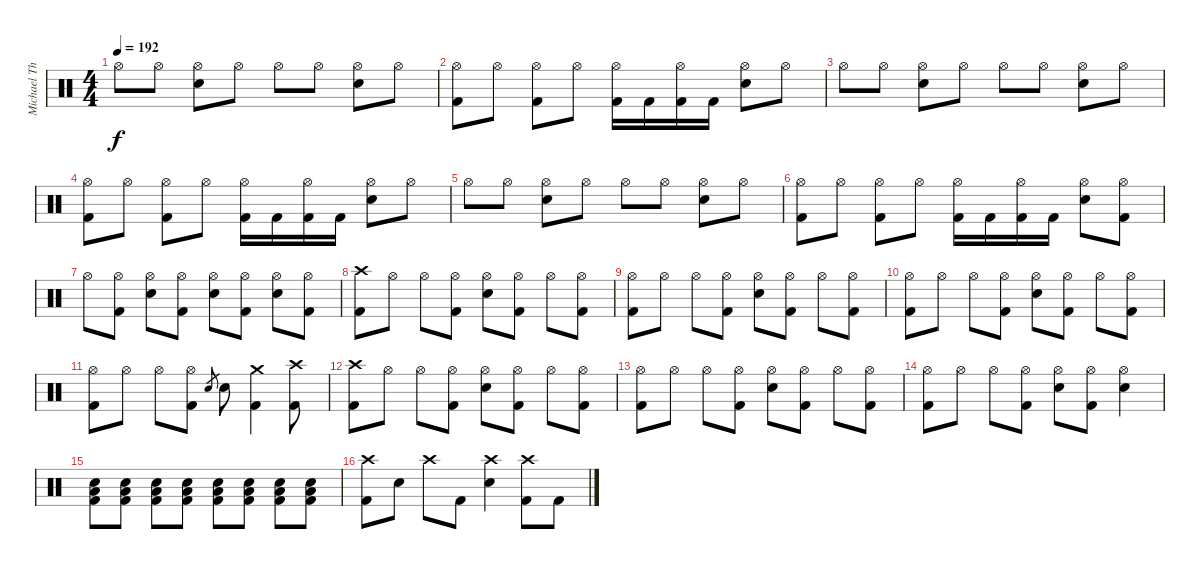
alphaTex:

\track ("Michael Thomas (Drums)" "Michael Th") {instrument percussion}
\staff {score}
\articulation defaults
\ts (4 4)
\tempo 192
\clef neutral
\ks c "Hi-Hat (open)".8{dy f} "Hi-Hat (open)".8
("Hi-Hat (open)" "Snare (hit) 2").8 "Hi-Hat (open)".8 "Hi-Hat (open)".8 "Hi-Hat (open)".8 ("Hi-Hat (open)" "Snare (hit) 2").8 "Hi-Hat (open)".8 |
("Hi-Hat (open)" "Kick (hit) 2").8 "Hi-Hat (open)".8 ("Hi-Hat (open)" "Kick (hit) 2").8 "Hi-Hat (open)".8 ("Hi-Hat (open)" "Kick (hit) 2").16 "Kick (hit) 2".16 ("Hi-Hat (open)" "Kick (hit) 2").16 "Kick (hit) 2".16 ("Hi-Hat (open)" "Snare (hit) 2").8 "Hi-Hat (open)".8 |
"Hi-Hat (open)".8 "Hi-Hat (open)".8 ("Hi-Hat (open)" "Snare (hit) 2").8 "Hi-Hat (open)".8 "Hi-Hat (open)".8 "Hi-Hat (open)".8 ("Hi-Hat (open)" "Snare (hit) 2").8 "Hi-Hat (open)".8 |
("Hi-Hat (open)" "Kick (hit) 2").8 "Hi-Hat (open)".8 ("Hi-Hat (open)" "Kick (hit) 2").8 "Hi-Hat (open)".8 ("Hi-Hat (open)" "Kick (hit) 2").16 "Kick (hit) 2".16 ("Hi-Hat (open)" "Kick (hit) 2").16 "Kick (hit) 2".16 ("Hi-Hat (open)" "Snare (hit) 2").8 "Hi-Hat (open)".8 |
"Hi-Hat (open)".8 "Hi-Hat (open)".8 ("Hi-Hat (open)" "Snare (hit) 2").8 "Hi-Hat (open)".8 "Hi-Hat (open)".8 "Hi-Hat (open)".8 ("Hi-Hat (open)" "Snare (hit) 2").8 "Hi-Hat (open)".8 |
("Hi-Hat (open)" "Kick (hit) 2").8 "Hi-Hat (open)".8 ("Hi-Hat (open)" "Kick (hit) 2").8 "Hi-Hat (open)".8 ("Hi-Hat (open)" "Kick (hit) 2").16 "Kick (hit) 2".16 ("Hi-Hat (open)" "Kick (hit) 2").16 "Kick (hit) 2".16 ("Hi-Hat (open)" "Snare (hit) 2").8 ("Hi-Hat (open)" "Kick (hit) 2").8 |
"Hi-Hat (open)".8 ("Hi-Hat (open)" "Kick (hit) 2").8 ("Hi-Hat (open)" "Snare (hit) 2").8 ("Hi-Hat (open)" "Kick (hit) 2").8 ("Hi-Hat (open)" "Snare (hit) 2").8 ("Hi-Hat (open)" "Kick (hit) 2").8 ("Hi-Hat (open)" "Snare (hit) 2").8 ("Hi-Hat (open)" "Kick (hit) 2").8 |
("Crash high (hit)" "Kick (hit) 2").8 "Hi-Hat (open)".8 "Hi-Hat (open)".8 ("Hi-Hat (open)" "Kick (hit) 2").8 ("Hi-Hat (open)" "Snare (hit) 2").8 ("Hi-Hat (open)" "Kick (hit) 2").8 "Hi-Hat (open)".8 ("Hi-Hat (open)" "Kick (hit) 2").8 |
("Hi-Hat (open)" "Kick (hit) 2").8 "Hi-Hat (open)".8 "Hi-Hat (open)".8 ("Hi-Hat (open)" "Kick (hit) 2").8 ("Hi-Hat (open)" "Snare (hit) 2").8 ("Hi-Hat (open)" "Kick (hit) 2").8 "Hi-Hat (open)".8 ("Hi-Hat (open)" "Kick (hit) 2").8 |
("Hi-Hat (open)" "Kick (hit) 2").8 "Hi-Hat (open)".8 "Hi-Hat (open)".8 ("Hi-Hat (open)" "Kick (hit) 2").8 ("Hi-Hat (open)" "Snare (hit) 2").8 ("Hi-Hat (open)" "Kick (hit) 2").8 "Hi-Hat (open)".8 ("Hi-Hat (open)" "Kick (hit) 2").8 |
("Hi-Hat (open)" "Kick (hit) 2").8 "Hi-Hat (open)".8 "Hi-Hat (open)".8 ("Hi-Hat (open)" "Kick (hit) 2").8 "Snare (hit) 2".8{gr} "Snare (hit) 2".8 ("Crash medium (hit)" "Kick (hit) 2").4 ("Crash high (hit)" "Kick (hit) 2").8 |
("Crash high (hit)" "Kick (hit) 2").8 "Hi-Hat (open)".8 "Hi-Hat (open)".8 ("Hi-Hat (open)" "Kick (hit) 2").8 ("Hi-Hat (open)" "Snare (hit) 2").8 ("Hi-Hat (open)" "Kick (hit) 2").8 "Hi-Hat (open)".8 ("Hi-Hat (open)" "Kick (hit) 2").8 |
("Hi-Hat (open)" "Kick (hit) 2").8 "Hi-Hat (open)".8 "Hi-Hat (open)".8 ("Hi-Hat (open)" "Kick (hit) 2").8 ("Hi-Hat (open)" "Snare (hit) 2").8 ("Hi-Hat (open)" "Kick (hit) 2").8 "Hi-Hat (open)".8 ("Hi-Hat (open)" "Kick (hit) 2").8 |
("Hi-Hat (open)" "Kick (hit) 2").8 "Hi-Hat (open)".8 "Hi-Hat (open)".8 ("Hi-Hat (open)" "Kick (hit) 2").8 ("Hi-Hat (open)" "Snare (hit) 2").8 ("Hi-Hat (open)" "Kick (hit) 2").8 ("Hi-Hat (open)" "Snare (hit) 2").4 |
("Kick (hit) 2" "Low Floor Tom (hit)" "Snare (hit) 2").8 ("Kick (hit) 2" "Low Floor Tom (hit)" "Snare (hit) 2").8 ("Kick (hit) 2" "Low Floor Tom (hit)" "Snare (hit) 2").8 ("Kick (hit) 2" "Low Floor Tom (hit)" "Snare (hit) 2").8 ("Kick (hit) 2" "Low Floor Tom (hit)" "Snare (hit) 2").8 ("Kick (hit) 2" "Low Floor Tom (hit)" "Snare (hit) 2").8 ("Kick (hit) 2" "Low Floor Tom (hit)" "Snare (hit) 2").8 ("Kick (hit) 2" "Low Floor Tom (hit)" "Snare (hit) 2").8 |
("Crash high (hit)" "Kick (hit) 2").8 "Snare (hit) 2".8 "Crash high (hit)".8 "Kick (hit) 2".8 ("Crash high (hit)" "Snare (hit) 2").4 ("Crash high (hit)" "Kick (hit) 2").8 "Kick (hit) 2".8
